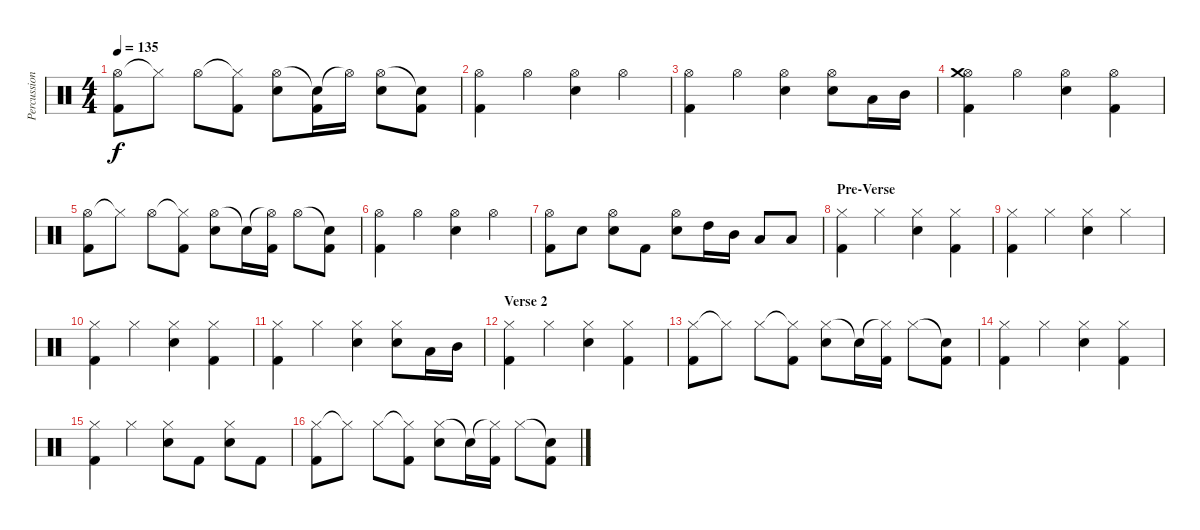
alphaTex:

\track ("Percussion" "Percussion") {instrument percussion}
\staff {score}
\articulation defaults
\ts (4 4)
\tempo 135
\clef neutral
\ks c
("Hi-Hat (open)" "Kick (hit) 2").8{dy f} "Hi-Hat (closed)"{t}.8 "Hi-Hat (open)".8 ("Hi-Hat (closed)"{t} "Kick (hit) 2").8 ("Hi-Hat (open)" "Electric Snare (hit)").8 ("Snare (hit)"{t} "Kick (hit) 2").16 "Hi-Hat (open)"{t}.16 ("Hi-Hat (open)" "Electric Snare (hit)").8 ("Snare (hit)"{t} "Kick (hit) 2").8 |
("Hi-Hat (open)" "Kick (hit) 2").4 "Hi-Hat (open)".4 ("Hi-Hat (open)" "Electric Snare (hit)").4 "Hi-Hat (open)".4 |
("Hi-Hat (open)" "Kick (hit) 2").4 "Hi-Hat (open)".4 ("Hi-Hat (open)" "Electric Snare (hit)").4 ("Hi-Hat (open)" "Electric Snare (hit)").8 "Low Floor Tom (hit)".16 "Mid Tom (hit)".16 |
("Hi-Hat (open)" "Kick (hit) 2" "Crash medium (hit)").4 "Hi-Hat (open)".4 ("Hi-Hat (open)" "Electric Snare (hit)").4 ("Hi-Hat (open)" "Kick (hit) 2").4 |
("Hi-Hat (open)" "Kick (hit) 2").8 "Hi-Hat (closed)"{t}.8 "Hi-Hat (open)".8 ("Hi-Hat (closed)"{t} "Kick (hit) 2").8 ("Hi-Hat (open)" "Electric Snare (hit)").8 "Snare (hit)"{t}.16 ("Hi-Hat (open)"{t} "Kick (hit) 2").16 "Hi-Hat (open)".8 ("Snare (hit)"{t} "Kick (hit) 2").8 |
("Hi-Hat (open)" "Kick (hit) 2").4 "Hi-Hat (open)".4 ("Hi-Hat (open)" "Electric Snare (hit)").4 "Hi-Hat (open)".4 |
("Hi-Hat (open)" "Kick (hit) 2").8 "Electric Snare (hit)".8 ("Hi-Hat (open)" "Electric Snare (hit)").8 "Kick (hit) 2".8 ("Hi-Hat (open)" "Electric Snare (hit)").8 "High Tom (hit)".16 "Mid Tom (hit)".16 "Low Tom (hit)".8 "Low Floor Tom (hit)".8 |
\section ("" "Pre-Verse")
("Hi-Hat (closed)" "Kick (hit) 2").4 "Hi-Hat (closed)".4 ("Hi-Hat (closed)" "Electric Snare (hit)").4 ("Hi-Hat (closed)" "Kick (hit) 2").4 |
("Hi-Hat (closed)" "Kick (hit) 2").4 "Hi-Hat (closed)".4 ("Hi-Hat (closed)" "Electric Snare (hit)").4 "Hi-Hat (closed)".4 |
("Hi-Hat (closed)" "Kick (hit) 2").4 "Hi-Hat (closed)".4 ("Hi-Hat (closed)" "Electric Snare (hit)").4 ("Hi-Hat (closed)" "Kick (hit) 2").4 |
("Hi-Hat (closed)" "Kick (hit) 2").4 "Hi-Hat (closed)".4 ("Hi-Hat (closed)" "Electric Snare (hit)").4 ("Hi-Hat (closed)" "Electric Snare (hit)").8 "Low Floor Tom (hit)".16 "Mid Tom (hit)".16 |
\section ("" "Verse 2 ")
("Hi-Hat (closed)" "Kick (hit) 2").4 "Hi-Hat (closed)".4 ("Hi-Hat (closed)" "Electric Snare (hit)").4 ("Hi-Hat (closed)" "Kick (hit) 2").4 |
("Hi-Hat (closed)" "Kick (hit) 2").8 "Hi-Hat (closed)"{t}.8 "Hi-Hat (closed)".8 ("Hi-Hat (closed)"{t} "Kick (hit) 2").8 ("Hi-Hat (closed)" "Electric Snare (hit)").8 "Snare (hit)"{t}.16 ("Hi-Hat (closed)"{t} "Kick (hit) 2").16 "Hi-Hat (closed)".8 ("Snare (hit)"{t} "Kick (hit) 2").8 |
("Hi-Hat (closed)" "Kick (hit) 2").4 "Hi-Hat (closed)".4 ("Hi-Hat (closed)" "Electric Snare (hit)").4 ("Hi-Hat (closed)" "Kick (hit) 2").4 |
("Hi-Hat (closed)" "Kick (hit) 2").4 "Hi-Hat (closed)".4 ("Hi-Hat (closed)" "Electric Snare (hit)").8 "Kick (hit) 2".8 ("Hi-Hat (closed)" "Electric Snare (hit)").8 "Kick (hit) 2".8 |
("Hi-Hat (closed)" "Kick (hit) 2").8 "Hi-Hat (closed)"{t}.8 "Hi-Hat (closed)".8 ("Hi-Hat (closed)"{t} "Kick (hit) 2").8 ("Hi-Hat (closed)" "Electric Snare (hit)").8 "Snare (hit)"{t}.16 ("Hi-Hat (closed)"{t} "Kick (hit) 2").16 "Hi-Hat (closed)".8 ("Snare (hit)"{t} "Kick (hit) 2").8
